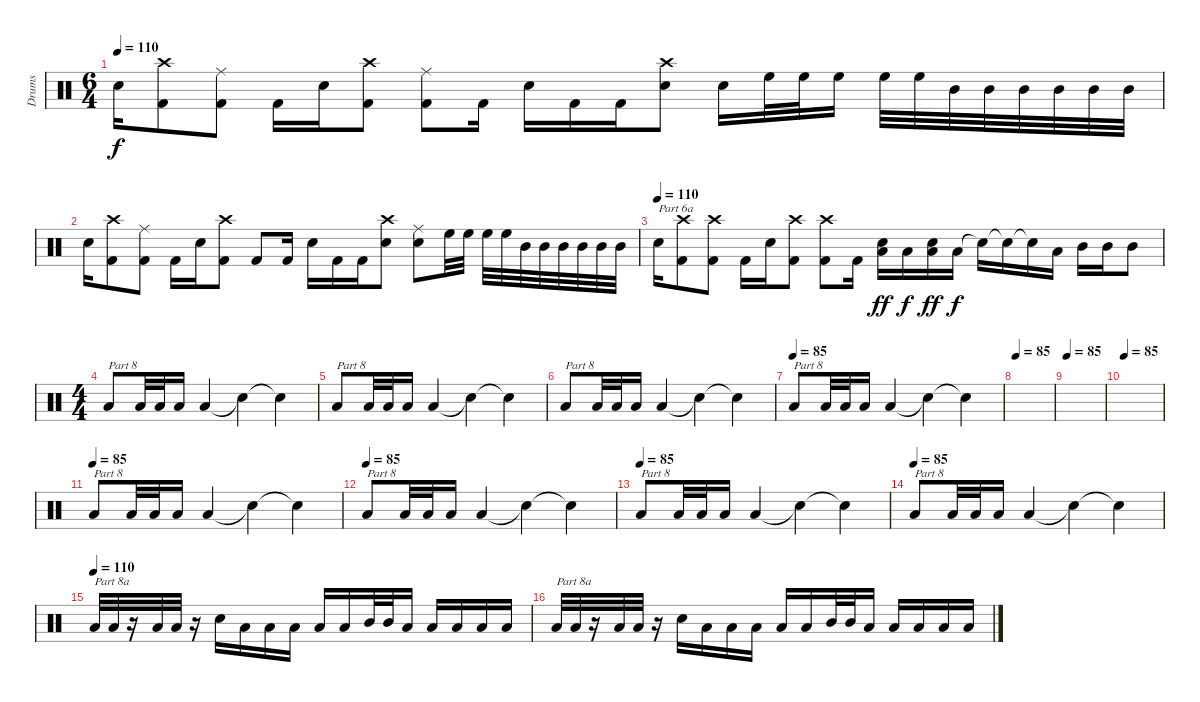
\track ("Drums" "Drums") {instrument percussion}
\staff {score}
\articulation defaults
\ts (6 4)
\tempo 110
\clef neutral
\ks c "Snare (hit) 2".16{dy f}
("Crash high (hit)" "Kick (hit) 2").8 ("Ride (middle)" "Kick (hit) 2").8 "Kick (hit) 2".16 "Snare (hit) 2".16 ("Crash high (hit)" "Kick (hit) 2").8 ("Ride (middle)" "Kick (hit) 2").8 "Kick (hit) 2".16 "Snare (hit) 2".16 "Kick (hit) 2".16 "Kick (hit) 2".16 ("Crash high (hit)" "Snare (hit) 2").8 "Snare (hit) 2".16 "High Floor Tom (hit)".32 "High Floor Tom (hit)".32 "High Floor Tom (hit)".16 "High Floor Tom (hit)".32 "High Floor Tom (hit)".32 "Mid Tom (hit)".32 "Mid Tom (hit)".32 "Mid Tom (hit)".32 "Mid Tom (hit)".32 "Mid Tom (hit)".32 "Mid Tom (hit)".32 |
"Snare (hit) 2".16 ("Crash high (hit)" "Kick (hit) 2").8 ("Ride (middle)" "Kick (hit) 2").8 "Kick (hit) 2".16 "Snare (hit) 2".16 ("Crash high (hit)" "Kick (hit) 2").8 "Kick (hit) 2".8 "Kick (hit) 2".16 "Snare (hit) 2".16 "Kick (hit) 2".16 "Kick (hit) 2".16 ("Crash high (hit)" "Snare (hit) 2").8 ("Ride (middle)" "Snare (hit) 2").8 "High Floor Tom (hit)".32 "High Floor Tom (hit)".32 "High Floor Tom (hit)".32 "High Floor Tom (hit)".32 "Mid Tom (hit)".32 "Mid Tom (hit)".32 "Mid Tom (hit)".32 "Mid Tom (hit)".32 "Mid Tom (hit)".32 "Mid Tom (hit)".32 |
\tempo (110)
"Snare (hit) 2".16{txt "Part 6a"} ("Crash high (hit)" "Kick (hit) 2").8 ("Crash high (hit)" "Kick (hit) 2").8 "Kick (hit) 2".16 "Snare (hit) 2".16 ("Crash high (hit)" "Kick (hit) 2").8 ("Crash high (hit)" "Kick (hit) 2").8 "Kick (hit) 2".16 ("Low Floor Tom (hit)" "Snare (hit) 2").16{dy ff} "Low Floor Tom (hit)".16{dy f} ("Low Floor Tom (hit)" "Snare (hit) 2").16{dy ff} "Low Floor Tom (hit)".16{dy f} "Snare (hit)"{t}.16 "Snare (hit)"{t}.16 "Snare (hit)"{t}.16 "Low Floor Tom (hit)".16 "Mid Tom (hit)".16 "Mid Tom (hit)".16 "Mid Tom (hit)".8 |
\ts (4 4)
"Low Floor Tom (hit)".8{txt "Part 8"} "Low Floor Tom (hit)".32 "Low Floor Tom (hit)".32 "Low Floor Tom (hit)".16 "Low Floor Tom (hit)".4 "Snare (hit)"{t}.4 "Snare (hit)"{t}.4 |
"Low Floor Tom (hit)".8{txt "Part 8"} "Low Floor Tom (hit)".32 "Low Floor Tom (hit)".32 "Low Floor Tom (hit)".16 "Low Floor Tom (hit)".4 "Snare (hit)"{t}.4 "Snare (hit)"{t}.4 |
"Low Floor Tom (hit)".8{txt "Part 8"} "Low Floor Tom (hit)".32 "Low Floor Tom (hit)".32 "Low Floor Tom (hit)".16 "Low Floor Tom (hit)".4 "Snare (hit)"{t}.4 "Snare (hit)"{t}.4 |
\tempo (85)
"Low Floor Tom (hit)".8{txt "Part 8"} "Low Floor Tom (hit)".32 "Low Floor Tom (hit)".32 "Low Floor Tom (hit)".16 "Low Floor Tom (hit)".4 "Snare (hit)"{t}.4 "Snare (hit)"{t}.4 |
\tempo 85
|
\tempo 85
|
\tempo 85
|
\tempo 110
\tempo (85)
"Low Floor Tom (hit)".8{txt "Part 8"} "Low Floor Tom (hit)".32 "Low Floor Tom (hit)".32 "Low Floor Tom (hit)".16 "Low Floor Tom (hit)".4 "Snare (hit)"{t}.4 "Snare (hit)"{t}.4 |
\tempo 110
\tempo (85)
"Low Floor Tom (hit)".8{txt "Part 8"} "Low Floor Tom (hit)".32 "Low Floor Tom (hit)".32 "Low Floor Tom (hit)".16 "Low Floor Tom (hit)".4 "Snare (hit)"{t}.4 "Snare (hit)"{t}.4 |
\tempo 110
\tempo (85)
"Low Floor Tom (hit)".8{txt "Part 8"} "Low Floor Tom (hit)".32 "Low Floor Tom (hit)".32 "Low Floor Tom (hit)".16 "Low Floor Tom (hit)".4 "Snare (hit)"{t}.4 "Snare (hit)"{t}.4 |
\tempo (85)
"Low Floor Tom (hit)".8{txt "Part 8"} "Low Floor Tom (hit)".32 "Low Floor Tom (hit)".32 "Low Floor Tom (hit)".16 "Low Floor Tom (hit)".4 "Snare (hit)"{t}.4 "Snare (hit)"{t}.4 |
\tempo (110)
"Low Floor Tom (hit)".32{txt "Part 8a"} "Low Floor Tom (hit)".32 r.16 "Low Floor Tom (hit)".32 "Low Floor Tom (hit)".32 r.16 "Snare (hit) 2".16 "Low Floor Tom (hit)".16 "Low Floor Tom (hit)".16 "Low Floor Tom (hit)".16 "Low Floor Tom (hit)".16 "Low Floor Tom (hit)".16 "Mid Tom (hit)".32 "Mid Tom (hit)".32 "Low Floor Tom (hit)".16 "Low Floor Tom (hit)".16 "Low Floor Tom (hit)".16 "Low Floor Tom (hit)".16 "Low Floor Tom (hit)".16 |
"Low Floor Tom (hit)".32{txt "Part 8a"} "Low Floor Tom (hit)".32 r.16 "Low Floor Tom (hit)".32 "Low Floor Tom (hit)".32 r.16 "Snare (hit) 2".16 "Low Floor Tom (hit)".16 "Low Floor Tom (hit)".16 "Low Floor Tom (hit)".16 "Low Floor Tom (hit)".16 "Low Floor Tom (hit)".16 "Mid Tom (hit)".32 "Mid Tom (hit)".32 "Low Floor Tom (hit)".16 "Low Floor Tom (hit)".16 "Low Floor Tom (hit)".16 "Low Floor Tom (hit)".16 "Low Floor Tom (hit)".16
